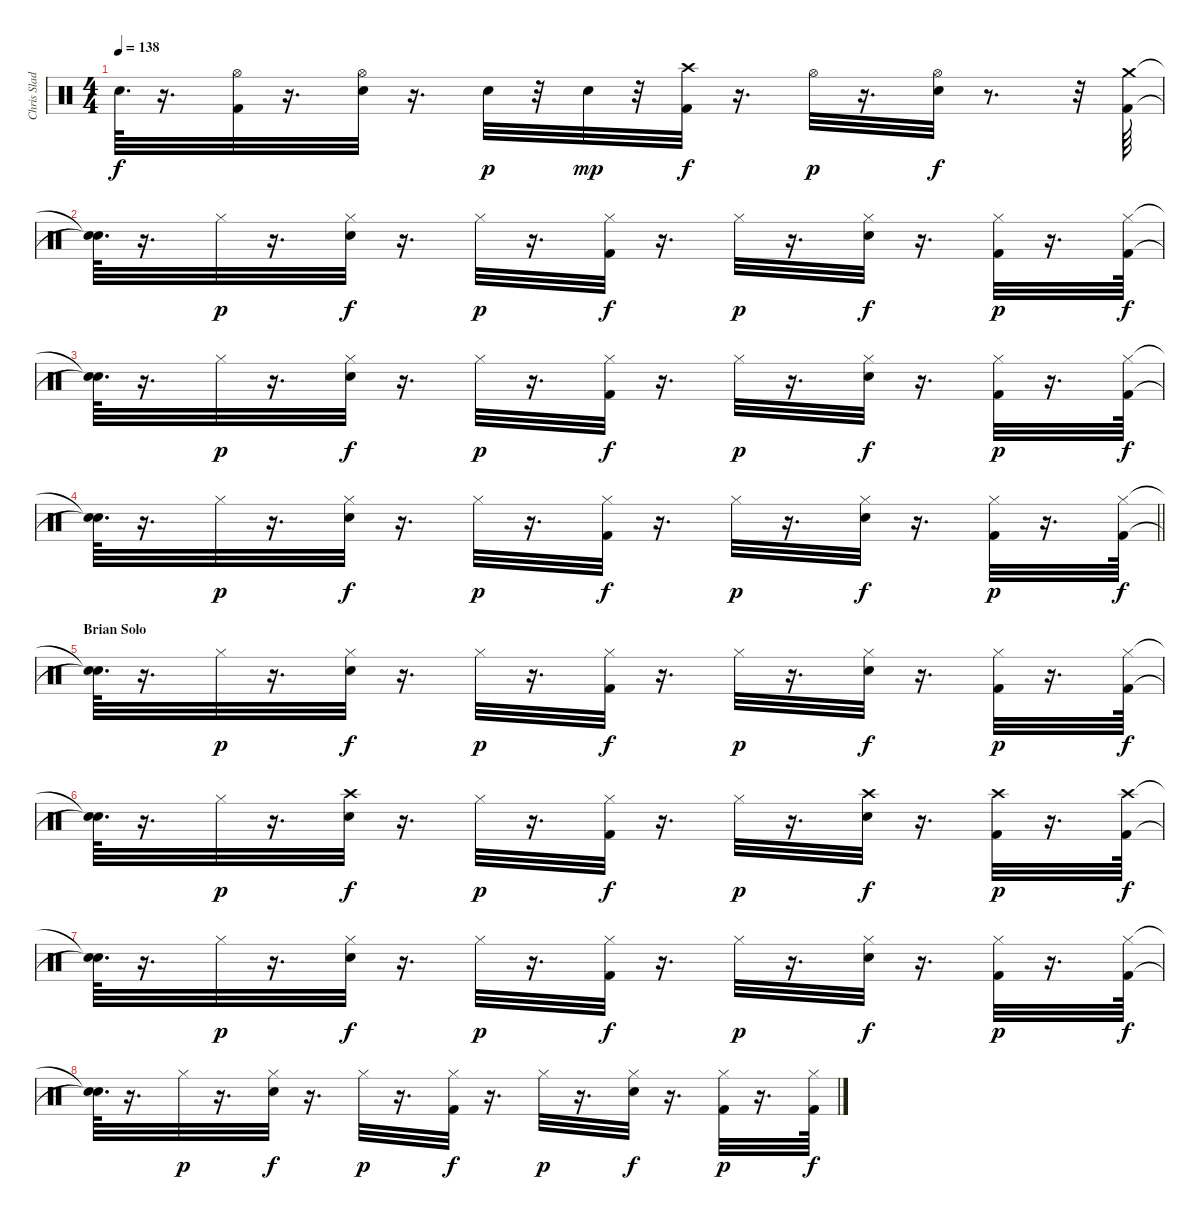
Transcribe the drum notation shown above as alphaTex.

\track ("Chris Slade" "Chris Slad") {instrument percussion}
\staff {score}
\articulation defaults
\ts (4 4)
\tempo 138
\clef neutral
\ks c "Snare (hit)"{t}.64{d dy f}
r.16{d} ("Hi-Hat (open)" "Kick (hit) 2").32 r.16{d} ("Hi-Hat (open)" "Electric Snare (hit)").32 r.16{d} "Electric Snare (hit)".32{dy p} r.32 "Electric Snare (hit)".32{dy mp} r.32 ("Crash high (hit)" "Kick (hit) 2").32{dy f} r.16{d} "Hi-Hat (open)".32{dy p} r.16{d} ("Hi-Hat (open)" "Electric Snare (hit)").32{dy f} r.8{d} r.32 ("Crash medium (hit)" "Kick (hit) 2").64 |
("Snare (hit)"{t} "Snare (hit)"{t}).64{d} r.16{d} "Hi-Hat (closed)".32{dy p} r.16{d} ("Hi-Hat (closed)" "Electric Snare (hit)").32{dy f} r.16{d} "Hi-Hat (closed)".32{dy p} r.16{d} ("Hi-Hat (closed)" "Kick (hit) 2").32{dy f} r.16{d} "Hi-Hat (closed)".32{dy p} r.16{d} ("Hi-Hat (closed)" "Electric Snare (hit)").32{dy f} r.16{d} ("Hi-Hat (closed)" "Kick (hit) 2").32{dy p} r.16{d} ("Hi-Hat (closed)" "Kick (hit) 2").64{dy f} |
("Snare (hit)"{t} "Snare (hit)"{t}).64{d} r.16{d} "Hi-Hat (closed)".32{dy p} r.16{d} ("Hi-Hat (closed)" "Electric Snare (hit)").32{dy f} r.16{d} "Hi-Hat (closed)".32{dy p} r.16{d} ("Hi-Hat (closed)" "Kick (hit) 2").32{dy f} r.16{d} "Hi-Hat (closed)".32{dy p} r.16{d} ("Hi-Hat (closed)" "Electric Snare (hit)").32{dy f} r.16{d} ("Hi-Hat (closed)" "Kick (hit) 2").32{dy p} r.16{d} ("Hi-Hat (closed)" "Kick (hit) 2").64{dy f} |
\barLineRight lightlight
("Snare (hit)"{t} "Snare (hit)"{t}).64{d} r.16{d} "Hi-Hat (closed)".32{dy p} r.16{d} ("Hi-Hat (closed)" "Electric Snare (hit)").32{dy f} r.16{d} "Hi-Hat (closed)".32{dy p} r.16{d} ("Hi-Hat (closed)" "Kick (hit) 2").32{dy f} r.16{d} "Hi-Hat (closed)".32{dy p} r.16{d} ("Hi-Hat (closed)" "Electric Snare (hit)").32{dy f} r.16{d} ("Hi-Hat (closed)" "Kick (hit) 2").32{dy p} r.16{d} ("Hi-Hat (closed)" "Kick (hit) 2").64{dy f} |
\section ("" "Brian Solo")
("Snare (hit)"{t} "Snare (hit)"{t}).64{d} r.16{d} "Hi-Hat (closed)".32{dy p} r.16{d} ("Hi-Hat (closed)" "Electric Snare (hit)").32{dy f} r.16{d} "Hi-Hat (closed)".32{dy p} r.16{d} ("Hi-Hat (closed)" "Kick (hit) 2").32{dy f} r.16{d} "Hi-Hat (closed)".32{dy p} r.16{d} ("Hi-Hat (closed)" "Electric Snare (hit)").32{dy f} r.16{d} ("Hi-Hat (closed)" "Kick (hit) 2").32{dy p} r.16{d} ("Hi-Hat (closed)" "Kick (hit) 2").64{dy f} |
("Snare (hit)"{t} "Snare (hit)"{t}).64{d} r.16{d} "Hi-Hat (closed)".32{dy p} r.16{d} ("Crash high (hit)" "Electric Snare (hit)").32{dy f} r.16{d} "Hi-Hat (closed)".32{dy p} r.16{d} ("Hi-Hat (closed)" "Kick (hit) 2").32{dy f} r.16{d} "Hi-Hat (closed)".32{dy p} r.16{d} ("Crash high (hit)" "Electric Snare (hit)").32{dy f} r.16{d} ("Crash high (hit)" "Kick (hit) 2").32{dy p} r.16{d} ("Crash high (hit)" "Kick (hit) 2").64{dy f} |
("Snare (hit)"{t} "Snare (hit)"{t}).64{d} r.16{d} "Hi-Hat (closed)".32{dy p} r.16{d} ("Hi-Hat (closed)" "Electric Snare (hit)").32{dy f} r.16{d} "Hi-Hat (closed)".32{dy p} r.16{d} ("Hi-Hat (closed)" "Kick (hit) 2").32{dy f} r.16{d} "Hi-Hat (closed)".32{dy p} r.16{d} ("Hi-Hat (closed)" "Electric Snare (hit)").32{dy f} r.16{d} ("Hi-Hat (closed)" "Kick (hit) 2").32{dy p} r.16{d} ("Hi-Hat (closed)" "Kick (hit) 2").64{dy f} |
("Snare (hit)"{t} "Snare (hit)"{t}).64{d} r.16{d} "Hi-Hat (closed)".32{dy p} r.16{d} ("Hi-Hat (closed)" "Electric Snare (hit)").32{dy f} r.16{d} "Hi-Hat (closed)".32{dy p} r.16{d} ("Hi-Hat (closed)" "Kick (hit) 2").32{dy f} r.16{d} "Hi-Hat (closed)".32{dy p} r.16{d} ("Hi-Hat (closed)" "Electric Snare (hit)").32{dy f} r.16{d} ("Hi-Hat (closed)" "Kick (hit) 2").32{dy p} r.16{d} ("Hi-Hat (closed)" "Kick (hit) 2").64{dy f}
